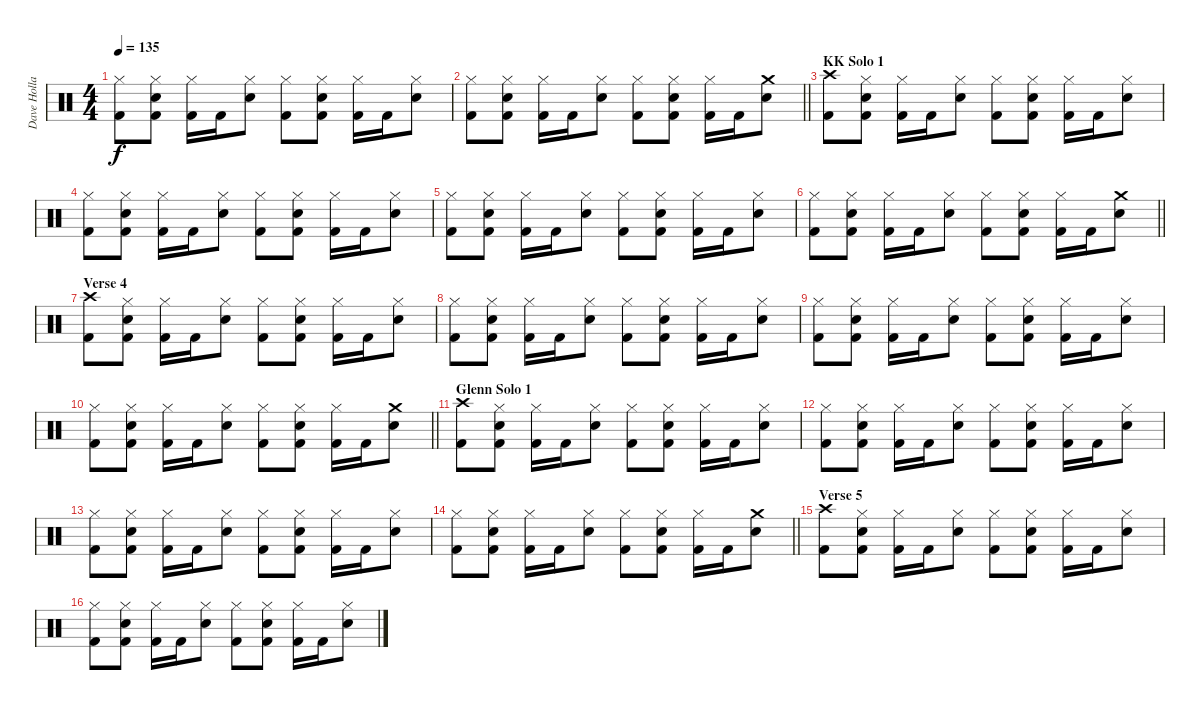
\track ("Dave Holland" "Dave Holla") {instrument percussion}
\staff {score}
\articulation defaults
\ts (4 4)
\tempo 135
\clef neutral
\ks c
("Hi-Hat (closed)" "Kick (hit) 2").8{dy f} ("Hi-Hat (closed)" "Snare (hit) 2" "Kick (hit) 2").8 ("Hi-Hat (closed)" "Kick (hit) 2").16 "Kick (hit) 2".16 ("Hi-Hat (closed)" "Snare (hit) 2").8 ("Hi-Hat (closed)" "Kick (hit) 2").8 ("Hi-Hat (closed)" "Snare (hit) 2" "Kick (hit) 2").8 ("Hi-Hat (closed)" "Kick (hit) 2").16 "Kick (hit) 2".16 ("Hi-Hat (closed)" "Snare (hit) 2").8 |
\barLineRight lightlight
("Hi-Hat (closed)" "Kick (hit) 2").8 ("Hi-Hat (closed)" "Snare (hit) 2" "Kick (hit) 2").8 ("Hi-Hat (closed)" "Kick (hit) 2").16 "Kick (hit) 2".16 ("Hi-Hat (closed)" "Snare (hit) 2").8 ("Hi-Hat (closed)" "Kick (hit) 2").8 ("Hi-Hat (closed)" "Snare (hit) 2" "Kick (hit) 2").8 ("Hi-Hat (closed)" "Kick (hit) 2").16 "Kick (hit) 2".16 ("Crash medium (hit)" "Snare (hit) 2").8 |
\section ("" "KK Solo 1")
("Crash high (hit)" "Kick (hit) 2").8 ("Hi-Hat (closed)" "Snare (hit) 2" "Kick (hit) 2").8 ("Hi-Hat (closed)" "Kick (hit) 2").16 "Kick (hit) 2".16 ("Hi-Hat (closed)" "Snare (hit) 2").8 ("Hi-Hat (closed)" "Kick (hit) 2").8 ("Hi-Hat (closed)" "Snare (hit) 2" "Kick (hit) 2").8 ("Hi-Hat (closed)" "Kick (hit) 2").16 "Kick (hit) 2".16 ("Hi-Hat (closed)" "Snare (hit) 2").8 |
("Hi-Hat (closed)" "Kick (hit) 2").8 ("Hi-Hat (closed)" "Snare (hit) 2" "Kick (hit) 2").8 ("Hi-Hat (closed)" "Kick (hit) 2").16 "Kick (hit) 2".16 ("Hi-Hat (closed)" "Snare (hit) 2").8 ("Hi-Hat (closed)" "Kick (hit) 2").8 ("Hi-Hat (closed)" "Snare (hit) 2" "Kick (hit) 2").8 ("Hi-Hat (closed)" "Kick (hit) 2").16 "Kick (hit) 2".16 ("Hi-Hat (closed)" "Snare (hit) 2").8 |
("Hi-Hat (closed)" "Kick (hit) 2").8 ("Hi-Hat (closed)" "Snare (hit) 2" "Kick (hit) 2").8 ("Hi-Hat (closed)" "Kick (hit) 2").16 "Kick (hit) 2".16 ("Hi-Hat (closed)" "Snare (hit) 2").8 ("Hi-Hat (closed)" "Kick (hit) 2").8 ("Hi-Hat (closed)" "Snare (hit) 2" "Kick (hit) 2").8 ("Hi-Hat (closed)" "Kick (hit) 2").16 "Kick (hit) 2".16 ("Hi-Hat (closed)" "Snare (hit) 2").8 |
\barLineRight lightlight
("Hi-Hat (closed)" "Kick (hit) 2").8 ("Hi-Hat (closed)" "Snare (hit) 2" "Kick (hit) 2").8 ("Hi-Hat (closed)" "Kick (hit) 2").16 "Kick (hit) 2".16 ("Hi-Hat (closed)" "Snare (hit) 2").8 ("Hi-Hat (closed)" "Kick (hit) 2").8 ("Hi-Hat (closed)" "Snare (hit) 2" "Kick (hit) 2").8 ("Hi-Hat (closed)" "Kick (hit) 2").16 "Kick (hit) 2".16 ("Crash medium (hit)" "Snare (hit) 2").8 |
\section ("" "Verse 4")
("Crash high (hit)" "Kick (hit) 2").8 ("Hi-Hat (closed)" "Snare (hit) 2" "Kick (hit) 2").8 ("Hi-Hat (closed)" "Kick (hit) 2").16 "Kick (hit) 2".16 ("Hi-Hat (closed)" "Snare (hit) 2").8 ("Hi-Hat (closed)" "Kick (hit) 2").8 ("Hi-Hat (closed)" "Snare (hit) 2" "Kick (hit) 2").8 ("Hi-Hat (closed)" "Kick (hit) 2").16 "Kick (hit) 2".16 ("Hi-Hat (closed)" "Snare (hit) 2").8 |
("Hi-Hat (closed)" "Kick (hit) 2").8 ("Hi-Hat (closed)" "Snare (hit) 2" "Kick (hit) 2").8 ("Hi-Hat (closed)" "Kick (hit) 2").16 "Kick (hit) 2".16 ("Hi-Hat (closed)" "Snare (hit) 2").8 ("Hi-Hat (closed)" "Kick (hit) 2").8 ("Hi-Hat (closed)" "Snare (hit) 2" "Kick (hit) 2").8 ("Hi-Hat (closed)" "Kick (hit) 2").16 "Kick (hit) 2".16 ("Hi-Hat (closed)" "Snare (hit) 2").8 |
("Hi-Hat (closed)" "Kick (hit) 2").8 ("Hi-Hat (closed)" "Snare (hit) 2" "Kick (hit) 2").8 ("Hi-Hat (closed)" "Kick (hit) 2").16 "Kick (hit) 2".16 ("Hi-Hat (closed)" "Snare (hit) 2").8 ("Hi-Hat (closed)" "Kick (hit) 2").8 ("Hi-Hat (closed)" "Snare (hit) 2" "Kick (hit) 2").8 ("Hi-Hat (closed)" "Kick (hit) 2").16 "Kick (hit) 2".16 ("Hi-Hat (closed)" "Snare (hit) 2").8 |
\barLineRight lightlight
("Hi-Hat (closed)" "Kick (hit) 2").8 ("Hi-Hat (closed)" "Snare (hit) 2" "Kick (hit) 2").8 ("Hi-Hat (closed)" "Kick (hit) 2").16 "Kick (hit) 2".16 ("Hi-Hat (closed)" "Snare (hit) 2").8 ("Hi-Hat (closed)" "Kick (hit) 2").8 ("Hi-Hat (closed)" "Snare (hit) 2" "Kick (hit) 2").8 ("Hi-Hat (closed)" "Kick (hit) 2").16 "Kick (hit) 2".16 ("Crash medium (hit)" "Snare (hit) 2").8 |
\section ("" "Glenn Solo 1")
("Crash high (hit)" "Kick (hit) 2").8 ("Hi-Hat (closed)" "Snare (hit) 2" "Kick (hit) 2").8 ("Hi-Hat (closed)" "Kick (hit) 2").16 "Kick (hit) 2".16 ("Hi-Hat (closed)" "Snare (hit) 2").8 ("Hi-Hat (closed)" "Kick (hit) 2").8 ("Hi-Hat (closed)" "Snare (hit) 2" "Kick (hit) 2").8 ("Hi-Hat (closed)" "Kick (hit) 2").16 "Kick (hit) 2".16 ("Hi-Hat (closed)" "Snare (hit) 2").8 |
("Hi-Hat (closed)" "Kick (hit) 2").8 ("Hi-Hat (closed)" "Snare (hit) 2" "Kick (hit) 2").8 ("Hi-Hat (closed)" "Kick (hit) 2").16 "Kick (hit) 2".16 ("Hi-Hat (closed)" "Snare (hit) 2").8 ("Hi-Hat (closed)" "Kick (hit) 2").8 ("Hi-Hat (closed)" "Snare (hit) 2" "Kick (hit) 2").8 ("Hi-Hat (closed)" "Kick (hit) 2").16 "Kick (hit) 2".16 ("Hi-Hat (closed)" "Snare (hit) 2").8 |
("Hi-Hat (closed)" "Kick (hit) 2").8 ("Hi-Hat (closed)" "Snare (hit) 2" "Kick (hit) 2").8 ("Hi-Hat (closed)" "Kick (hit) 2").16 "Kick (hit) 2".16 ("Hi-Hat (closed)" "Snare (hit) 2").8 ("Hi-Hat (closed)" "Kick (hit) 2").8 ("Hi-Hat (closed)" "Snare (hit) 2" "Kick (hit) 2").8 ("Hi-Hat (closed)" "Kick (hit) 2").16 "Kick (hit) 2".16 ("Hi-Hat (closed)" "Snare (hit) 2").8 |
\barLineRight lightlight
("Hi-Hat (closed)" "Kick (hit) 2").8 ("Hi-Hat (closed)" "Snare (hit) 2" "Kick (hit) 2").8 ("Hi-Hat (closed)" "Kick (hit) 2").16 "Kick (hit) 2".16 ("Hi-Hat (closed)" "Snare (hit) 2").8 ("Hi-Hat (closed)" "Kick (hit) 2").8 ("Hi-Hat (closed)" "Snare (hit) 2" "Kick (hit) 2").8 ("Hi-Hat (closed)" "Kick (hit) 2").16 "Kick (hit) 2".16 ("Crash medium (hit)" "Snare (hit) 2").8 |
\section ("" "Verse 5")
("Crash high (hit)" "Kick (hit) 2").8 ("Hi-Hat (closed)" "Snare (hit) 2" "Kick (hit) 2").8 ("Hi-Hat (closed)" "Kick (hit) 2").16 "Kick (hit) 2".16 ("Hi-Hat (closed)" "Snare (hit) 2").8 ("Hi-Hat (closed)" "Kick (hit) 2").8 ("Hi-Hat (closed)" "Snare (hit) 2" "Kick (hit) 2").8 ("Hi-Hat (closed)" "Kick (hit) 2").16 "Kick (hit) 2".16 ("Hi-Hat (closed)" "Snare (hit) 2").8 |
("Hi-Hat (closed)" "Kick (hit) 2").8 ("Hi-Hat (closed)" "Snare (hit) 2" "Kick (hit) 2").8 ("Hi-Hat (closed)" "Kick (hit) 2").16 "Kick (hit) 2".16 ("Hi-Hat (closed)" "Snare (hit) 2").8 ("Hi-Hat (closed)" "Kick (hit) 2").8 ("Hi-Hat (closed)" "Snare (hit) 2" "Kick (hit) 2").8 ("Hi-Hat (closed)" "Kick (hit) 2").16 "Kick (hit) 2".16 ("Hi-Hat (closed)" "Snare (hit) 2").8
